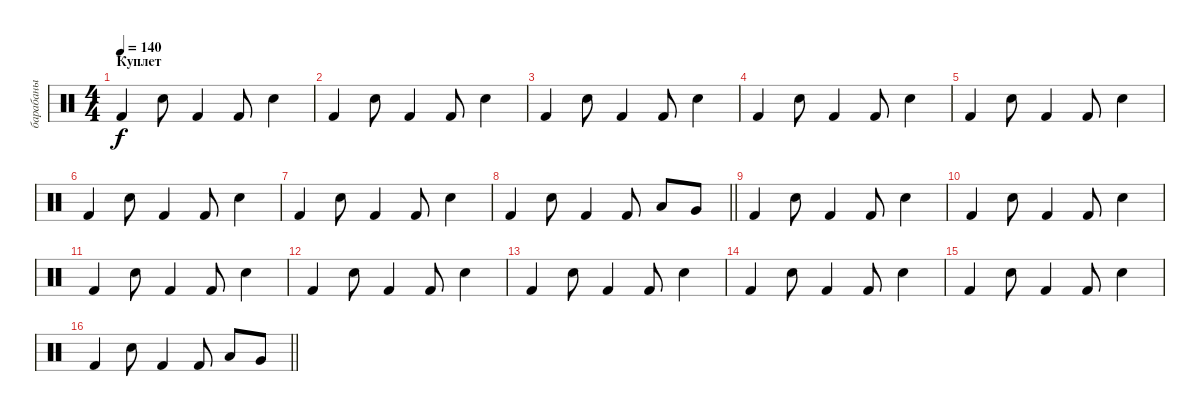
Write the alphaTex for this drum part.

\track ("барабаны" "барабаны") {instrument percussion}
\staff {score}
\articulation defaults
\ts (4 4)
\section ("" "Куплет")
\tempo 140
\clef neutral
\ks c "Kick (hit) 2".4{dy f} "Electric Snare (hit)".8 "Kick (hit) 2".4 "Kick (hit) 2".8 "Electric Snare (hit)".4
|
"Kick (hit) 2".4 "Electric Snare (hit)".8 "Kick (hit) 2".4 "Kick (hit) 2".8 "Electric Snare (hit)".4 |
"Kick (hit) 2".4 "Electric Snare (hit)".8 "Kick (hit) 2".4 "Kick (hit) 2".8 "Electric Snare (hit)".4 |
"Kick (hit) 2".4 "Electric Snare (hit)".8 "Kick (hit) 2".4 "Kick (hit) 2".8 "Electric Snare (hit)".4 |
"Kick (hit) 2".4 "Electric Snare (hit)".8 "Kick (hit) 2".4 "Kick (hit) 2".8 "Electric Snare (hit)".4 |
"Kick (hit) 2".4 "Electric Snare (hit)".8 "Kick (hit) 2".4 "Kick (hit) 2".8 "Electric Snare (hit)".4 |
"Kick (hit) 2".4 "Electric Snare (hit)".8 "Kick (hit) 2".4 "Kick (hit) 2".8 "Electric Snare (hit)".4 |
\barLineRight lightlight "Kick (hit) 2".4 "Electric Snare (hit)".8 "Kick (hit) 2".4 "Kick (hit) 2".8 "Low Tom (hit)".8 "Very Low Tom (hit)".8
|
"Kick (hit) 2".4 "Electric Snare (hit)".8 "Kick (hit) 2".4 "Kick (hit) 2".8 "Electric Snare (hit)".4 |
"Kick (hit) 2".4 "Electric Snare (hit)".8 "Kick (hit) 2".4 "Kick (hit) 2".8 "Electric Snare (hit)".4 |
"Kick (hit) 2".4 "Electric Snare (hit)".8 "Kick (hit) 2".4 "Kick (hit) 2".8 "Electric Snare (hit)".4 |
"Kick (hit) 2".4 "Electric Snare (hit)".8 "Kick (hit) 2".4 "Kick (hit) 2".8 "Electric Snare (hit)".4 |
"Kick (hit) 2".4 "Electric Snare (hit)".8 "Kick (hit) 2".4 "Kick (hit) 2".8 "Electric Snare (hit)".4 |
"Kick (hit) 2".4 "Electric Snare (hit)".8 "Kick (hit) 2".4 "Kick (hit) 2".8 "Electric Snare (hit)".4 |
"Kick (hit) 2".4 "Electric Snare (hit)".8 "Kick (hit) 2".4 "Kick (hit) 2".8 "Electric Snare (hit)".4 |
\barLineRight lightlight "Kick (hit) 2".4 "Electric Snare (hit)".8 "Kick (hit) 2".4 "Kick (hit) 2".8 "Low Tom (hit)".8 "Very Low Tom (hit)".8
